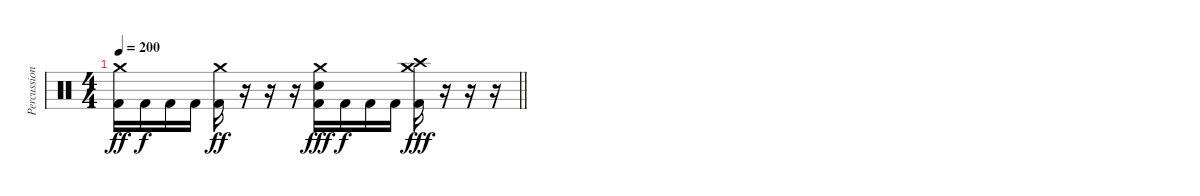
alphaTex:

\track ("Percussions" "Percussion") {instrument percussion}
\staff {score}
\articulation defaults
\ts (4 4)
\tempo 200
\clef neutral
\barLineRight lightlight
\ks c
("Crash medium (hit)" "Kick (hit) 2").16{dy ff} "Kick (hit) 2".16{dy f} "Kick (hit) 2".16 "Kick (hit) 2".16 ("Crash medium (hit)" "Kick (hit) 2").16{dy ff} r.16 r.16 r.16 ("Crash medium (hit)" "Electric Snare (hit)" "Kick (hit) 2").16{dy fff} "Kick (hit) 2".16{dy f} "Kick (hit) 2".16 "Kick (hit) 2".16 ("Crash high (hit)" "Crash medium (hit)" "Kick (hit) 2").16{dy fff} r.16 r.16 r.16
